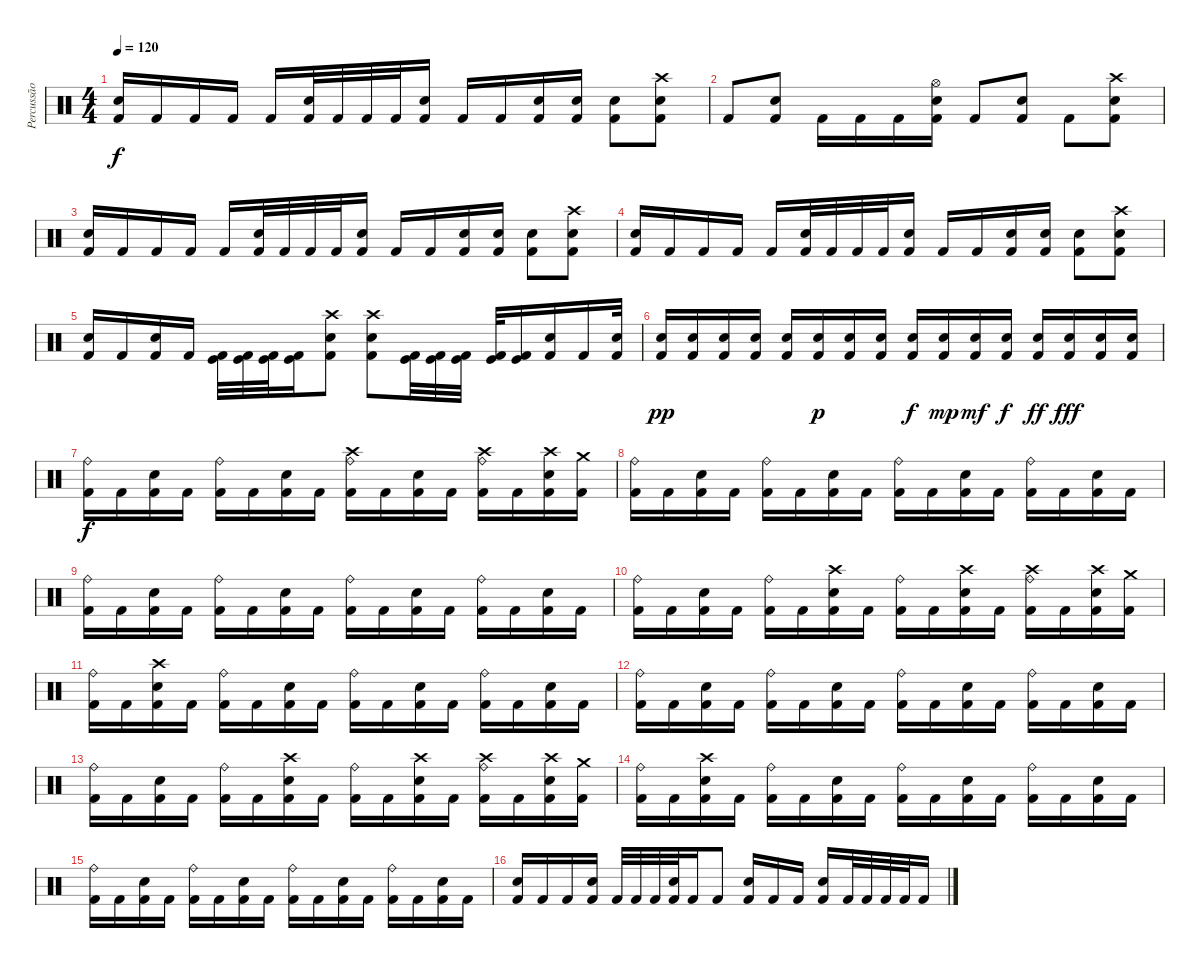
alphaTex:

\track ("Percussão" "Percussão") {instrument percussion}
\staff {score}
\articulation defaults
\ts (4 4)
\tempo 120
\clef neutral
\ks c
("Kick (hit) 2" "Snare (hit) 2").16{dy f} "Kick (hit) 2".16 "Kick (hit) 2".16 "Kick (hit) 2".16 "Kick (hit) 2".16 ("Kick (hit) 2" "Snare (hit) 2").32 "Kick (hit) 2".32 "Kick (hit) 2".32 "Kick (hit) 2".32 ("Kick (hit) 2" "Snare (hit) 2").16 "Kick (hit) 2".16 "Kick (hit) 2".16 ("Kick (hit) 2" "Snare (hit) 2").16 ("Kick (hit) 2" "Snare (hit) 2").16 ("Kick (hit) 2" "Snare (hit) 2").8 ("Kick (hit) 2" "Snare (hit) 2" "Crash high (hit)").8 |
"Kick (hit) 2".8 ("Kick (hit) 2" "Snare (hit) 2").8 "Kick (hit) 2".16 "Kick (hit) 2".16 "Kick (hit) 2".16 ("Kick (hit) 2" "Snare (hit) 2" "Hi-Hat (open)").16 "Kick (hit) 2".8 ("Kick (hit) 2" "Snare (hit) 2").8 "Kick (hit) 2".8 ("Kick (hit) 2" "Snare (hit) 2" "Crash high (hit)").8 |
("Kick (hit) 2" "Snare (hit) 2").16 "Kick (hit) 2".16 "Kick (hit) 2".16 "Kick (hit) 2".16 "Kick (hit) 2".16 ("Kick (hit) 2" "Snare (hit) 2").32 "Kick (hit) 2".32 "Kick (hit) 2".32 "Kick (hit) 2".32 ("Kick (hit) 2" "Snare (hit) 2").16 "Kick (hit) 2".16 "Kick (hit) 2".16 ("Kick (hit) 2" "Snare (hit) 2").16 ("Kick (hit) 2" "Snare (hit) 2").16 ("Kick (hit) 2" "Snare (hit) 2").8 ("Kick (hit) 2" "Snare (hit) 2" "Crash high (hit)").8 |
("Kick (hit) 2" "Snare (hit) 2").16 "Kick (hit) 2".16 "Kick (hit) 2".16 "Kick (hit) 2".16 "Kick (hit) 2".16 ("Kick (hit) 2" "Snare (hit) 2").32 "Kick (hit) 2".32 "Kick (hit) 2".32 "Kick (hit) 2".32 ("Kick (hit) 2" "Snare (hit) 2").16 "Kick (hit) 2".16 "Kick (hit) 2".16 ("Kick (hit) 2" "Snare (hit) 2").16 ("Kick (hit) 2" "Snare (hit) 2").16 ("Kick (hit) 2" "Snare (hit) 2").8 ("Kick (hit) 2" "Snare (hit) 2" "Crash high (hit)").8 |
("Kick (hit) 2" "Snare (hit) 2").16 "Kick (hit) 2".16 ("Kick (hit) 2" "Snare (hit) 2").16 "Kick (hit) 2".16 ("Kick (hit) 2" "Kick (hit)").32 ("Kick (hit) 2" "Kick (hit)").32 ("Kick (hit) 2" "Kick (hit)").32 ("Kick (hit) 2" "Kick (hit)").16 ("Kick (hit) 2" "Snare (hit) 2" "Crash high (hit)").8 ("Kick (hit) 2" "Snare (hit) 2" "Crash high (hit)").8 ("Kick (hit) 2" "Kick (hit)").32 ("Kick (hit) 2" "Kick (hit)").32 ("Kick (hit) 2" "Kick (hit)").32 ("Kick (hit) 2" "Kick (hit)").32 ("Kick (hit) 2" "Kick (hit)").16 ("Kick (hit) 2" "Snare (hit) 2").16 "Kick (hit) 2".16 ("Kick (hit) 2" "Snare (hit) 2").32 |
("Snare (hit) 2" "Kick (hit) 2").16{dy pp} ("Snare (hit) 2" "Kick (hit) 2").16 ("Snare (hit) 2" "Kick (hit) 2").16 ("Snare (hit) 2" "Kick (hit) 2").16 ("Snare (hit) 2" "Kick (hit) 2").16 ("Snare (hit) 2" "Kick (hit) 2").16{dy p} ("Snare (hit) 2" "Kick (hit) 2").16 ("Snare (hit) 2" "Kick (hit) 2").16 ("Snare (hit) 2" "Kick (hit) 2").16{dy f} ("Snare (hit) 2" "Kick (hit) 2").16{dy mp} ("Snare (hit) 2" "Kick (hit) 2").16{dy mf} ("Snare (hit) 2" "Kick (hit) 2").16{dy f} ("Snare (hit) 2" "Kick (hit) 2").16{dy ff} ("Snare (hit) 2" "Kick (hit) 2").16{dy fff} ("Snare (hit) 2" "Kick (hit) 2").16 ("Snare (hit) 2" "Kick (hit) 2").16 |
("Ride (bell)" "Kick (hit) 2").16{dy f} "Kick (hit) 2".16 ("Snare (hit) 2" "Kick (hit) 2").16 "Kick (hit) 2".16 ("Ride (bell)" "Kick (hit) 2").16 "Kick (hit) 2".16 ("Snare (hit) 2" "Kick (hit) 2").16 "Kick (hit) 2".16 ("Crash high (hit)" "Ride (bell)" "Kick (hit) 2").16 "Kick (hit) 2".16 ("Snare (hit) 2" "Kick (hit) 2").16 "Kick (hit) 2".16 ("Crash high (hit)" "Ride (bell)" "Kick (hit) 2").16 "Kick (hit) 2".16 ("Crash high (hit)" "Snare (hit) 2" "Kick (hit) 2").16 ("Crash medium (hit)" "Kick (hit) 2").16 |
("Ride (bell)" "Kick (hit) 2").16 "Kick (hit) 2".16 ("Snare (hit) 2" "Kick (hit) 2").16 "Kick (hit) 2".16 ("Ride (bell)" "Kick (hit) 2").16 "Kick (hit) 2".16 ("Snare (hit) 2" "Kick (hit) 2").16 "Kick (hit) 2".16 ("Ride (bell)" "Kick (hit) 2").16 "Kick (hit) 2".16 ("Snare (hit) 2" "Kick (hit) 2").16 "Kick (hit) 2".16 ("Ride (bell)" "Kick (hit) 2").16 "Kick (hit) 2".16 ("Snare (hit) 2" "Kick (hit) 2").16 "Kick (hit) 2".16 |
("Ride (bell)" "Kick (hit) 2").16 "Kick (hit) 2".16 ("Snare (hit) 2" "Kick (hit) 2").16 "Kick (hit) 2".16 ("Ride (bell)" "Kick (hit) 2").16 "Kick (hit) 2".16 ("Snare (hit) 2" "Kick (hit) 2").16 "Kick (hit) 2".16 ("Ride (bell)" "Kick (hit) 2").16 "Kick (hit) 2".16 ("Snare (hit) 2" "Kick (hit) 2").16 "Kick (hit) 2".16 ("Ride (bell)" "Kick (hit) 2").16 "Kick (hit) 2".16 ("Snare (hit) 2" "Kick (hit) 2").16 "Kick (hit) 2".16 |
("Ride (bell)" "Kick (hit) 2").16 "Kick (hit) 2".16 ("Snare (hit) 2" "Kick (hit) 2").16 "Kick (hit) 2".16 ("Ride (bell)" "Kick (hit) 2").16 "Kick (hit) 2".16 ("Crash high (hit)" "Snare (hit) 2" "Kick (hit) 2").16 "Kick (hit) 2".16 ("Ride (bell)" "Kick (hit) 2").16 "Kick (hit) 2".16 ("Crash high (hit)" "Snare (hit) 2" "Kick (hit) 2").16 "Kick (hit) 2".16 ("Crash high (hit)" "Ride (bell)" "Kick (hit) 2").16 "Kick (hit) 2".16 ("Crash high (hit)" "Snare (hit) 2" "Kick (hit) 2").16 ("Crash medium (hit)" "Kick (hit) 2").16 |
("Ride (bell)" "Kick (hit) 2").16 "Kick (hit) 2".16 ("Crash high (hit)" "Snare (hit) 2" "Kick (hit) 2").16 "Kick (hit) 2".16 ("Ride (bell)" "Kick (hit) 2").16 "Kick (hit) 2".16 ("Snare (hit) 2" "Kick (hit) 2").16 "Kick (hit) 2".16 ("Ride (bell)" "Kick (hit) 2").16 "Kick (hit) 2".16 ("Snare (hit) 2" "Kick (hit) 2").16 "Kick (hit) 2".16 ("Ride (bell)" "Kick (hit) 2").16 "Kick (hit) 2".16 ("Snare (hit) 2" "Kick (hit) 2").16 "Kick (hit) 2".16 |
("Ride (bell)" "Kick (hit) 2").16 "Kick (hit) 2".16 ("Snare (hit) 2" "Kick (hit) 2").16 "Kick (hit) 2".16 ("Ride (bell)" "Kick (hit) 2").16 "Kick (hit) 2".16 ("Snare (hit) 2" "Kick (hit) 2").16 "Kick (hit) 2".16 ("Ride (bell)" "Kick (hit) 2").16 "Kick (hit) 2".16 ("Snare (hit) 2" "Kick (hit) 2").16 "Kick (hit) 2".16 ("Ride (bell)" "Kick (hit) 2").16 "Kick (hit) 2".16 ("Snare (hit) 2" "Kick (hit) 2").16 "Kick (hit) 2".16 |
("Ride (bell)" "Kick (hit) 2").16 "Kick (hit) 2".16 ("Snare (hit) 2" "Kick (hit) 2").16 "Kick (hit) 2".16 ("Ride (bell)" "Kick (hit) 2").16 "Kick (hit) 2".16 ("Crash high (hit)" "Snare (hit) 2" "Kick (hit) 2").16 "Kick (hit) 2".16 ("Ride (bell)" "Kick (hit) 2").16 "Kick (hit) 2".16 ("Crash high (hit)" "Snare (hit) 2" "Kick (hit) 2").16 "Kick (hit) 2".16 ("Crash high (hit)" "Ride (bell)" "Kick (hit) 2").16 "Kick (hit) 2".16 ("Crash high (hit)" "Snare (hit) 2" "Kick (hit) 2").16 ("Crash medium (hit)" "Kick (hit) 2").16 |
("Ride (bell)" "Kick (hit) 2").16 "Kick (hit) 2".16 ("Crash high (hit)" "Snare (hit) 2" "Kick (hit) 2").16 "Kick (hit) 2".16 ("Ride (bell)" "Kick (hit) 2").16 "Kick (hit) 2".16 ("Snare (hit) 2" "Kick (hit) 2").16 "Kick (hit) 2".16 ("Ride (bell)" "Kick (hit) 2").16 "Kick (hit) 2".16 ("Snare (hit) 2" "Kick (hit) 2").16 "Kick (hit) 2".16 ("Ride (bell)" "Kick (hit) 2").16 "Kick (hit) 2".16 ("Snare (hit) 2" "Kick (hit) 2").16 "Kick (hit) 2".16 |
("Ride (bell)" "Kick (hit) 2").16 "Kick (hit) 2".16 ("Snare (hit) 2" "Kick (hit) 2").16 "Kick (hit) 2".16 ("Ride (bell)" "Kick (hit) 2").16 "Kick (hit) 2".16 ("Snare (hit) 2" "Kick (hit) 2").16 "Kick (hit) 2".16 ("Ride (bell)" "Kick (hit) 2").16 "Kick (hit) 2".16 ("Snare (hit) 2" "Kick (hit) 2").16 "Kick (hit) 2".16 ("Ride (bell)" "Kick (hit) 2").16 "Kick (hit) 2".16 ("Snare (hit) 2" "Kick (hit) 2").16 "Kick (hit) 2".16 |
("Snare (hit) 2" "Kick (hit) 2").16 "Kick (hit) 2".16 "Kick (hit) 2".16 ("Snare (hit) 2" "Kick (hit) 2").16 "Kick (hit) 2".32 "Kick (hit) 2".32 "Kick (hit) 2".32 ("Snare (hit) 2" "Kick (hit) 2").32 "Kick (hit) 2".16 "Kick (hit) 2".8 ("Snare (hit) 2" "Kick (hit) 2").16 "Kick (hit) 2".16 "Kick (hit) 2".16 ("Snare (hit) 2" "Kick (hit) 2").16 "Kick (hit) 2".32 "Kick (hit) 2".32 "Kick (hit) 2".32 "Kick (hit) 2".32 "Kick (hit) 2".16
